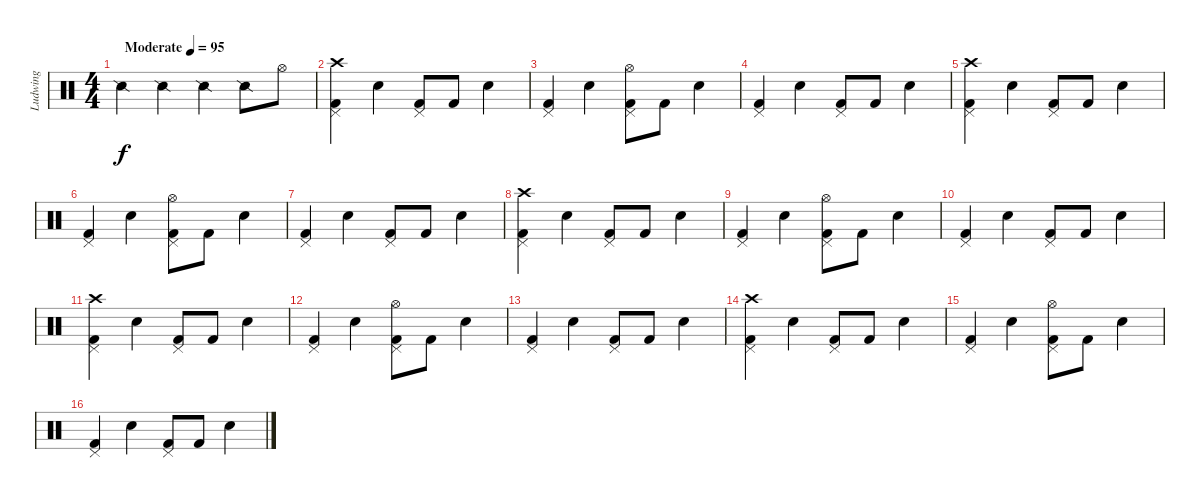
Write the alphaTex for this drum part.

\track ("Ludwing" "Ludwing") {instrument percussion}
\staff {score}
\articulation defaults
\ts (4 4)
\tempo (95 "Moderate")
\clef neutral
\ks c "Snare (side stick) 2".4{dy f} "Snare (side stick) 2".4 "Snare (side stick) 2".4 "Snare (side stick) 2".8 "Hi-Hat (open)".8
|
("Kick (hit) 2" "Pedal Hi-Hat (hit)" "Crash high (hit)").4 "Snare (hit) 2".4 ("Kick (hit) 2" "Pedal Hi-Hat (hit)").8 "Kick (hit) 2".8 "Snare (hit) 2".4 |
("Kick (hit) 2" "Pedal Hi-Hat (hit)").4 "Snare (hit) 2".4 ("Kick (hit) 2" "Pedal Hi-Hat (hit)" "Hi-Hat (open)").8 "Kick (hit) 2".8 "Snare (hit) 2".4 |
("Kick (hit) 2" "Pedal Hi-Hat (hit)").4 "Snare (hit) 2".4 ("Kick (hit) 2" "Pedal Hi-Hat (hit)").8 "Kick (hit) 2".8 "Snare (hit) 2".4 |
("Kick (hit) 2" "Pedal Hi-Hat (hit)" "Crash high (hit)").4 "Snare (hit) 2".4 ("Kick (hit) 2" "Pedal Hi-Hat (hit)").8 "Kick (hit) 2".8 "Snare (hit) 2".4 |
("Kick (hit) 2" "Pedal Hi-Hat (hit)").4 "Snare (hit) 2".4 ("Kick (hit) 2" "Pedal Hi-Hat (hit)" "Hi-Hat (open)").8 "Kick (hit) 2".8 "Snare (hit) 2".4 |
("Kick (hit) 2" "Pedal Hi-Hat (hit)").4 "Snare (hit) 2".4 ("Kick (hit) 2" "Pedal Hi-Hat (hit)").8 "Kick (hit) 2".8 "Snare (hit) 2".4 |
("Kick (hit) 2" "Pedal Hi-Hat (hit)" "Crash high (hit)").4 "Snare (hit) 2".4 ("Kick (hit) 2" "Pedal Hi-Hat (hit)").8 "Kick (hit) 2".8 "Snare (hit) 2".4 |
("Kick (hit) 2" "Pedal Hi-Hat (hit)").4 "Snare (hit) 2".4 ("Kick (hit) 2" "Pedal Hi-Hat (hit)" "Hi-Hat (open)").8 "Kick (hit) 2".8 "Snare (hit) 2".4 |
("Kick (hit) 2" "Pedal Hi-Hat (hit)").4 "Snare (hit) 2".4 ("Kick (hit) 2" "Pedal Hi-Hat (hit)").8 "Kick (hit) 2".8 "Snare (hit) 2".4 |
("Kick (hit) 2" "Pedal Hi-Hat (hit)" "Crash high (hit)").4 "Snare (hit) 2".4 ("Kick (hit) 2" "Pedal Hi-Hat (hit)").8 "Kick (hit) 2".8 "Snare (hit) 2".4 |
("Kick (hit) 2" "Pedal Hi-Hat (hit)").4 "Snare (hit) 2".4 ("Kick (hit) 2" "Pedal Hi-Hat (hit)" "Hi-Hat (open)").8 "Kick (hit) 2".8 "Snare (hit) 2".4 |
("Kick (hit) 2" "Pedal Hi-Hat (hit)").4 "Snare (hit) 2".4 ("Kick (hit) 2" "Pedal Hi-Hat (hit)").8 "Kick (hit) 2".8 "Snare (hit) 2".4 |
("Kick (hit) 2" "Pedal Hi-Hat (hit)" "Crash high (hit)").4 "Snare (hit) 2".4 ("Kick (hit) 2" "Pedal Hi-Hat (hit)").8 "Kick (hit) 2".8 "Snare (hit) 2".4 |
("Kick (hit) 2" "Pedal Hi-Hat (hit)").4 "Snare (hit) 2".4 ("Kick (hit) 2" "Pedal Hi-Hat (hit)" "Hi-Hat (open)").8 "Kick (hit) 2".8 "Snare (hit) 2".4 |
("Kick (hit) 2" "Pedal Hi-Hat (hit)").4 "Snare (hit) 2".4 ("Kick (hit) 2" "Pedal Hi-Hat (hit)").8 "Kick (hit) 2".8 "Snare (hit) 2".4
